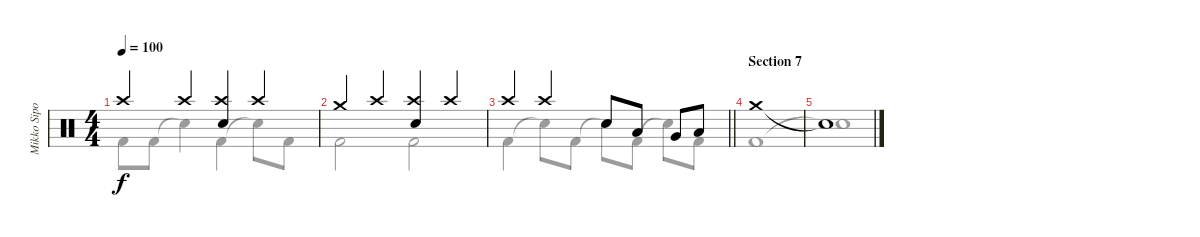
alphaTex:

\track ("Mikko Sipola (drums)" "Mikko Sipo") {instrument percussion}
\staff {score}
\articulation defaults
\voice
\ts (4 4)
\tempo 100
\clef neutral
\ks aminor "Crash high (hit)".4{dy f} "Crash high (hit)".4
("Crash high (hit)" "Snare (hit) 2").4 "Crash high (hit)".4 |
"Crash medium (hit)".4 "Crash high (hit)".4 ("Crash high (hit)" "Snare (hit) 2").4 "Crash high (hit)".4 |
\barLineRight lightlight "Crash high (hit)".4 "Crash high (hit)".4 "Snare (hit) 2".8 "Low Tom (hit)".8 "Very Low Tom (hit)".8 "Low Floor Tom (hit)".8
|
\section ("" "Section 7")
"Crash medium (hit)".1 |
"Snare (hit)"{t}.1 |
|
|
|
|
|
|
|
|
|
|
\voice
\clef neutral
\ottava regular
\simile none
\ks aminor "Kick (hit) 2".8{dy f} "Kick (hit) 2".8 "Snare (hit)"{t}.4 "Kick (hit) 2".4 "Snare (hit)"{t}.8 "Kick (hit) 2".8
|
"Kick (hit) 2".2 "Kick (hit) 2".2 |
\barLineRight lightlight "Kick (hit) 2".4 "Snare (hit)"{t}.8 "Kick (hit) 2".8 "Snare (hit)"{t}.8 "Kick (hit) 2".8 "Snare (hit)"{t}.8 "Kick (hit) 2".8
|
"Kick (hit) 2".1 |
"Snare (hit)"{t}.1 |
|
|
|
|
|
|
|
|
|
|
